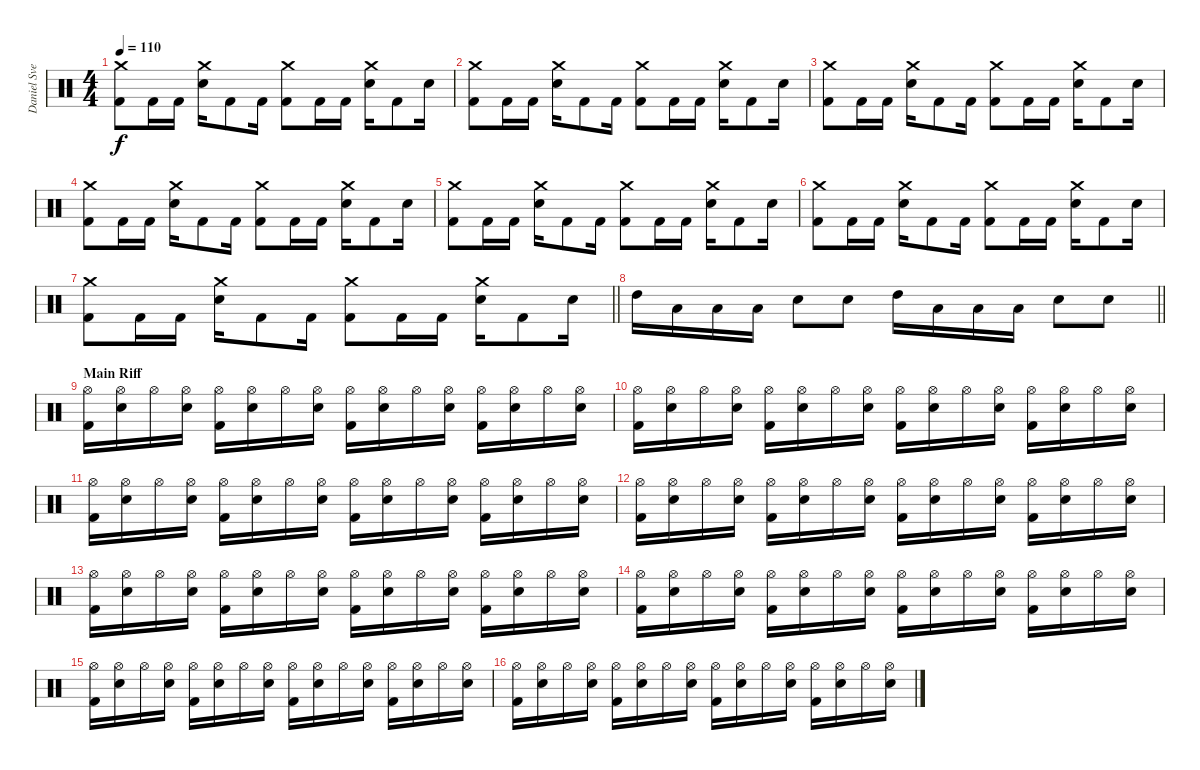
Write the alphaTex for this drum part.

\track ("Daniel Svennson" "Daniel Sve") {instrument percussion}
\staff {score}
\articulation defaults
\ts (4 4)
\tempo 110
\clef neutral
\ks c
("Kick (hit) 2" "Crash medium (hit)").8{dy f} "Kick (hit) 2".16 "Kick (hit) 2".16 ("Snare (hit) 2" "Crash medium (hit)").16 "Kick (hit) 2".8 "Kick (hit) 2".16 ("Kick (hit) 2" "Crash medium (hit)").8 "Kick (hit) 2".16 "Kick (hit) 2".16 ("Snare (hit) 2" "Crash medium (hit)").16 "Kick (hit) 2".8 "Snare (hit) 2".16 |
("Kick (hit) 2" "Crash medium (hit)").8 "Kick (hit) 2".16 "Kick (hit) 2".16 ("Snare (hit) 2" "Crash medium (hit)").16 "Kick (hit) 2".8 "Kick (hit) 2".16 ("Kick (hit) 2" "Crash medium (hit)").8 "Kick (hit) 2".16 "Kick (hit) 2".16 ("Snare (hit) 2" "Crash medium (hit)").16 "Kick (hit) 2".8 "Snare (hit) 2".16 |
("Kick (hit) 2" "Crash medium (hit)").8 "Kick (hit) 2".16 "Kick (hit) 2".16 ("Snare (hit) 2" "Crash medium (hit)").16 "Kick (hit) 2".8 "Kick (hit) 2".16 ("Kick (hit) 2" "Crash medium (hit)").8 "Kick (hit) 2".16 "Kick (hit) 2".16 ("Snare (hit) 2" "Crash medium (hit)").16 "Kick (hit) 2".8 "Snare (hit) 2".16 |
("Kick (hit) 2" "Crash medium (hit)").8 "Kick (hit) 2".16 "Kick (hit) 2".16 ("Snare (hit) 2" "Crash medium (hit)").16 "Kick (hit) 2".8 "Kick (hit) 2".16 ("Kick (hit) 2" "Crash medium (hit)").8 "Kick (hit) 2".16 "Kick (hit) 2".16 ("Snare (hit) 2" "Crash medium (hit)").16 "Kick (hit) 2".8 "Snare (hit) 2".16 |
("Kick (hit) 2" "Crash medium (hit)").8 "Kick (hit) 2".16 "Kick (hit) 2".16 ("Snare (hit) 2" "Crash medium (hit)").16 "Kick (hit) 2".8 "Kick (hit) 2".16 ("Kick (hit) 2" "Crash medium (hit)").8 "Kick (hit) 2".16 "Kick (hit) 2".16 ("Snare (hit) 2" "Crash medium (hit)").16 "Kick (hit) 2".8 "Snare (hit) 2".16 |
("Kick (hit) 2" "Crash medium (hit)").8 "Kick (hit) 2".16 "Kick (hit) 2".16 ("Snare (hit) 2" "Crash medium (hit)").16 "Kick (hit) 2".8 "Kick (hit) 2".16 ("Kick (hit) 2" "Crash medium (hit)").8 "Kick (hit) 2".16 "Kick (hit) 2".16 ("Snare (hit) 2" "Crash medium (hit)").16 "Kick (hit) 2".8 "Snare (hit) 2".16 |
\barLineRight lightlight
("Kick (hit) 2" "Crash medium (hit)").8 "Kick (hit) 2".16 "Kick (hit) 2".16 ("Snare (hit) 2" "Crash medium (hit)").16 "Kick (hit) 2".8 "Kick (hit) 2".16 ("Kick (hit) 2" "Crash medium (hit)").8 "Kick (hit) 2".16 "Kick (hit) 2".16 ("Snare (hit) 2" "Crash medium (hit)").16 "Kick (hit) 2".8 "Snare (hit) 2".16 |
\barLineRight lightlight "High Tom (hit)".16 "Low Tom (hit)".16 "Low Floor Tom (hit)".16 "Low Floor Tom (hit)".16 "Snare (hit) 2".8 "Snare (hit) 2".8 "High Tom (hit)".16 "Low Tom (hit)".16 "Low Floor Tom (hit)".16 "Low Floor Tom (hit)".16 "Snare (hit) 2".8 "Snare (hit) 2".8
|
\section ("" "Main Riff")
("Hi-Hat (open)" "Kick (hit) 2").16 ("Hi-Hat (open)" "Snare (hit) 2").16 "Hi-Hat (open)".16 ("Hi-Hat (open)" "Snare (hit) 2").16 ("Hi-Hat (open)" "Kick (hit) 2").16 ("Hi-Hat (open)" "Snare (hit) 2").16 "Hi-Hat (open)".16 ("Hi-Hat (open)" "Snare (hit) 2").16 ("Hi-Hat (open)" "Kick (hit) 2").16 ("Hi-Hat (open)" "Snare (hit) 2").16 "Hi-Hat (open)".16 ("Hi-Hat (open)" "Snare (hit) 2").16 ("Hi-Hat (open)" "Kick (hit) 2").16 ("Hi-Hat (open)" "Snare (hit) 2").16 "Hi-Hat (open)".16 ("Hi-Hat (open)" "Snare (hit) 2").16 |
("Hi-Hat (open)" "Kick (hit) 2").16 ("Hi-Hat (open)" "Snare (hit) 2").16 "Hi-Hat (open)".16 ("Hi-Hat (open)" "Snare (hit) 2").16 ("Hi-Hat (open)" "Kick (hit) 2").16 ("Hi-Hat (open)" "Snare (hit) 2").16 "Hi-Hat (open)".16 ("Hi-Hat (open)" "Snare (hit) 2").16 ("Hi-Hat (open)" "Kick (hit) 2").16 ("Hi-Hat (open)" "Snare (hit) 2").16 "Hi-Hat (open)".16 ("Hi-Hat (open)" "Snare (hit) 2").16 ("Hi-Hat (open)" "Kick (hit) 2").16 ("Hi-Hat (open)" "Snare (hit) 2").16 "Hi-Hat (open)".16 ("Hi-Hat (open)" "Snare (hit) 2").16 |
("Hi-Hat (open)" "Kick (hit) 2").16 ("Hi-Hat (open)" "Snare (hit) 2").16 "Hi-Hat (open)".16 ("Hi-Hat (open)" "Snare (hit) 2").16 ("Hi-Hat (open)" "Kick (hit) 2").16 ("Hi-Hat (open)" "Snare (hit) 2").16 "Hi-Hat (open)".16 ("Hi-Hat (open)" "Snare (hit) 2").16 ("Hi-Hat (open)" "Kick (hit) 2").16 ("Hi-Hat (open)" "Snare (hit) 2").16 "Hi-Hat (open)".16 ("Hi-Hat (open)" "Snare (hit) 2").16 ("Hi-Hat (open)" "Kick (hit) 2").16 ("Hi-Hat (open)" "Snare (hit) 2").16 "Hi-Hat (open)".16 ("Hi-Hat (open)" "Snare (hit) 2").16 |
("Hi-Hat (open)" "Kick (hit) 2").16 ("Hi-Hat (open)" "Snare (hit) 2").16 "Hi-Hat (open)".16 ("Hi-Hat (open)" "Snare (hit) 2").16 ("Hi-Hat (open)" "Kick (hit) 2").16 ("Hi-Hat (open)" "Snare (hit) 2").16 "Hi-Hat (open)".16 ("Hi-Hat (open)" "Snare (hit) 2").16 ("Hi-Hat (open)" "Kick (hit) 2").16 ("Hi-Hat (open)" "Snare (hit) 2").16 "Hi-Hat (open)".16 ("Hi-Hat (open)" "Snare (hit) 2").16 ("Hi-Hat (open)" "Kick (hit) 2").16 ("Hi-Hat (open)" "Snare (hit) 2").16 "Hi-Hat (open)".16 ("Hi-Hat (open)" "Snare (hit) 2").16 |
("Hi-Hat (open)" "Kick (hit) 2").16 ("Hi-Hat (open)" "Snare (hit) 2").16 "Hi-Hat (open)".16 ("Hi-Hat (open)" "Snare (hit) 2").16 ("Hi-Hat (open)" "Kick (hit) 2").16 ("Hi-Hat (open)" "Snare (hit) 2").16 "Hi-Hat (open)".16 ("Hi-Hat (open)" "Snare (hit) 2").16 ("Hi-Hat (open)" "Kick (hit) 2").16 ("Hi-Hat (open)" "Snare (hit) 2").16 "Hi-Hat (open)".16 ("Hi-Hat (open)" "Snare (hit) 2").16 ("Hi-Hat (open)" "Kick (hit) 2").16 ("Hi-Hat (open)" "Snare (hit) 2").16 "Hi-Hat (open)".16 ("Hi-Hat (open)" "Snare (hit) 2").16 |
("Hi-Hat (open)" "Kick (hit) 2").16 ("Hi-Hat (open)" "Snare (hit) 2").16 "Hi-Hat (open)".16 ("Hi-Hat (open)" "Snare (hit) 2").16 ("Hi-Hat (open)" "Kick (hit) 2").16 ("Hi-Hat (open)" "Snare (hit) 2").16 "Hi-Hat (open)".16 ("Hi-Hat (open)" "Snare (hit) 2").16 ("Hi-Hat (open)" "Kick (hit) 2").16 ("Hi-Hat (open)" "Snare (hit) 2").16 "Hi-Hat (open)".16 ("Hi-Hat (open)" "Snare (hit) 2").16 ("Hi-Hat (open)" "Kick (hit) 2").16 ("Hi-Hat (open)" "Snare (hit) 2").16 "Hi-Hat (open)".16 ("Hi-Hat (open)" "Snare (hit) 2").16 |
("Hi-Hat (open)" "Kick (hit) 2").16 ("Hi-Hat (open)" "Snare (hit) 2").16 "Hi-Hat (open)".16 ("Hi-Hat (open)" "Snare (hit) 2").16 ("Hi-Hat (open)" "Kick (hit) 2").16 ("Hi-Hat (open)" "Snare (hit) 2").16 "Hi-Hat (open)".16 ("Hi-Hat (open)" "Snare (hit) 2").16 ("Hi-Hat (open)" "Kick (hit) 2").16 ("Hi-Hat (open)" "Snare (hit) 2").16 "Hi-Hat (open)".16 ("Hi-Hat (open)" "Snare (hit) 2").16 ("Hi-Hat (open)" "Kick (hit) 2").16 ("Hi-Hat (open)" "Snare (hit) 2").16 "Hi-Hat (open)".16 ("Hi-Hat (open)" "Snare (hit) 2").16 |
("Hi-Hat (open)" "Kick (hit) 2").16 ("Hi-Hat (open)" "Snare (hit) 2").16 "Hi-Hat (open)".16 ("Hi-Hat (open)" "Snare (hit) 2").16 ("Hi-Hat (open)" "Kick (hit) 2").16 ("Hi-Hat (open)" "Snare (hit) 2").16 "Hi-Hat (open)".16 ("Hi-Hat (open)" "Snare (hit) 2").16 ("Hi-Hat (open)" "Kick (hit) 2").16 ("Hi-Hat (open)" "Snare (hit) 2").16 "Hi-Hat (open)".16 ("Hi-Hat (open)" "Snare (hit) 2").16 ("Hi-Hat (open)" "Kick (hit) 2").16 ("Hi-Hat (open)" "Snare (hit) 2").16 "Hi-Hat (open)".16 ("Hi-Hat (open)" "Snare (hit) 2").16
